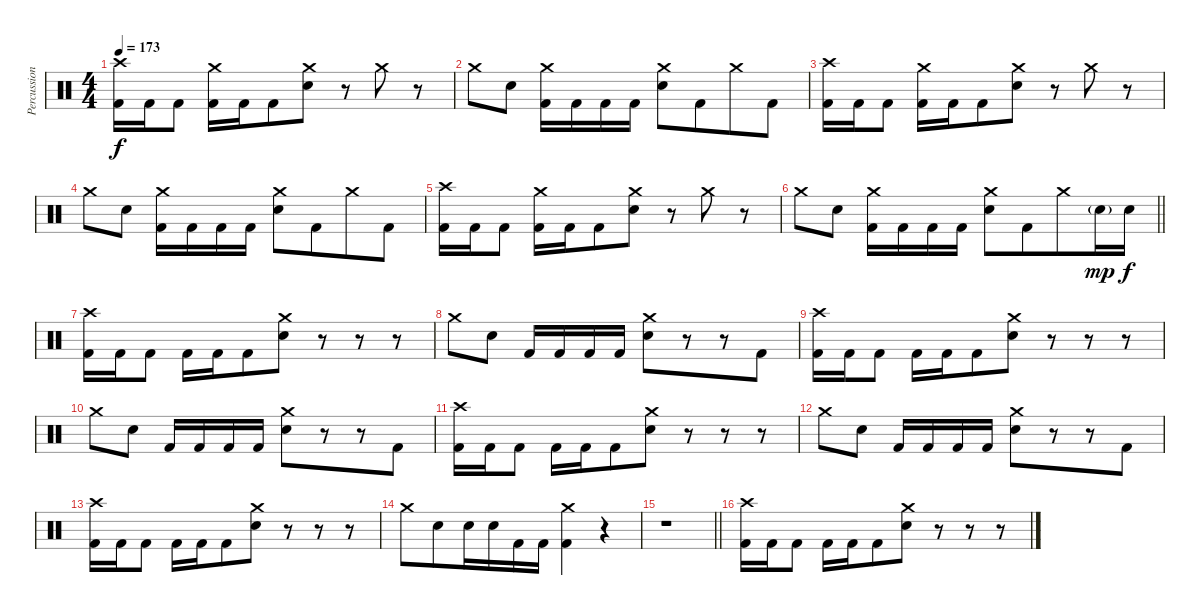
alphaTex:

\track ("Percussion" "Percussion") {instrument percussion}
\staff {score}
\articulation defaults
\ts (4 4)
\tempo 173
\clef neutral
\ks c
("Crash high (hit)" "Kick (hit) 2").16{dy f} "Kick (hit) 2".16 "Kick (hit) 2".8 ("Crash medium (hit)" "Kick (hit) 2").16 "Kick (hit) 2".16 "Kick (hit) 2".8{beam merge} ("Crash medium (hit)" "Electric Snare (hit)").8 r.8 "Crash medium (hit)".8 r.8 |
"Crash medium (hit)".8 "Electric Snare (hit)".8 ("Crash medium (hit)" "Kick (hit) 2").16 "Kick (hit) 2".16 "Kick (hit) 2".16 "Kick (hit) 2".16 ("Crash medium (hit)" "Electric Snare (hit)").8{beam merge} "Kick (hit) 2".8{beam merge} "Crash medium (hit)".8{beam merge} "Kick (hit) 2".8 |
("Crash high (hit)" "Kick (hit) 2").16 "Kick (hit) 2".16 "Kick (hit) 2".8 ("Crash medium (hit)" "Kick (hit) 2").16 "Kick (hit) 2".16 "Kick (hit) 2".8{beam merge} ("Crash medium (hit)" "Electric Snare (hit)").8 r.8 "Crash medium (hit)".8 r.8 |
"Crash medium (hit)".8 "Electric Snare (hit)".8 ("Crash medium (hit)" "Kick (hit) 2").16 "Kick (hit) 2".16 "Kick (hit) 2".16 "Kick (hit) 2".16 ("Crash medium (hit)" "Electric Snare (hit)").8{beam merge} "Kick (hit) 2".8{beam merge} "Crash medium (hit)".8{beam merge} "Kick (hit) 2".8 |
("Crash high (hit)" "Kick (hit) 2").16 "Kick (hit) 2".16 "Kick (hit) 2".8 ("Crash medium (hit)" "Kick (hit) 2").16 "Kick (hit) 2".16 "Kick (hit) 2".8{beam merge} ("Crash medium (hit)" "Electric Snare (hit)").8 r.8 "Crash medium (hit)".8 r.8 |
\barLineRight lightlight "Crash medium (hit)".8 "Electric Snare (hit)".8
("Crash medium (hit)" "Kick (hit) 2").16 "Kick (hit) 2".16 "Kick (hit) 2".16 "Kick (hit) 2".16 ("Crash medium (hit)" "Electric Snare (hit)").8{beam merge} "Kick (hit) 2".8{beam merge} "Crash medium (hit)".8{beam merge} "Electric Snare (hit)"{g}.16{dy mp beam merge} "Electric Snare (hit)".16{dy f} |
\section ("" "")
("Crash high (hit)" "Kick (hit) 2").16 "Kick (hit) 2".16 "Kick (hit) 2".8 "Kick (hit) 2".16 "Kick (hit) 2".16 "Kick (hit) 2".8{beam merge} ("Crash medium (hit)" "Electric Snare (hit)").8 r.8 r.8 r.8 |
"Crash medium (hit)".8 "Electric Snare (hit)".8 "Kick (hit) 2".16 "Kick (hit) 2".16 "Kick (hit) 2".16 "Kick (hit) 2".16 ("Crash medium (hit)" "Electric Snare (hit)").8{beam merge} r.8{beam merge} r.8{beam merge} "Kick (hit) 2".8 |
("Crash high (hit)" "Kick (hit) 2").16 "Kick (hit) 2".16 "Kick (hit) 2".8 "Kick (hit) 2".16 "Kick (hit) 2".16 "Kick (hit) 2".8{beam merge} ("Crash medium (hit)" "Electric Snare (hit)").8 r.8 r.8 r.8 |
"Crash medium (hit)".8 "Electric Snare (hit)".8 "Kick (hit) 2".16 "Kick (hit) 2".16 "Kick (hit) 2".16 "Kick (hit) 2".16 ("Crash medium (hit)" "Electric Snare (hit)").8{beam merge} r.8{beam merge} r.8{beam merge} "Kick (hit) 2".8 |
("Crash high (hit)" "Kick (hit) 2").16 "Kick (hit) 2".16 "Kick (hit) 2".8 "Kick (hit) 2".16 "Kick (hit) 2".16 "Kick (hit) 2".8{beam merge} ("Crash medium (hit)" "Electric Snare (hit)").8 r.8 r.8 r.8 |
"Crash medium (hit)".8 "Electric Snare (hit)".8 "Kick (hit) 2".16 "Kick (hit) 2".16 "Kick (hit) 2".16 "Kick (hit) 2".16 ("Crash medium (hit)" "Electric Snare (hit)").8{beam merge} r.8{beam merge} r.8{beam merge} "Kick (hit) 2".8 |
("Crash high (hit)" "Kick (hit) 2").16 "Kick (hit) 2".16 "Kick (hit) 2".8 "Kick (hit) 2".16 "Kick (hit) 2".16 "Kick (hit) 2".8{beam merge} ("Crash medium (hit)" "Electric Snare (hit)").8 r.8 r.8 r.8 |
"Crash medium (hit)".8 "Electric Snare (hit)".8{beam merge} "Electric Snare (hit)".16 "Electric Snare (hit)".16 "Kick (hit) 2".16 "Kick (hit) 2".16{beam merge} ("Crash medium (hit)" "Kick (hit) 2").4{beam merge} r.4 |
\barLineRight lightlight
r.1 |
\section ("" "")
("Crash high (hit)" "Kick (hit) 2").16 "Kick (hit) 2".16 "Kick (hit) 2".8 "Kick (hit) 2".16 "Kick (hit) 2".16 "Kick (hit) 2".8{beam merge} ("Crash medium (hit)" "Electric Snare (hit)").8 r.8 r.8 r.8
